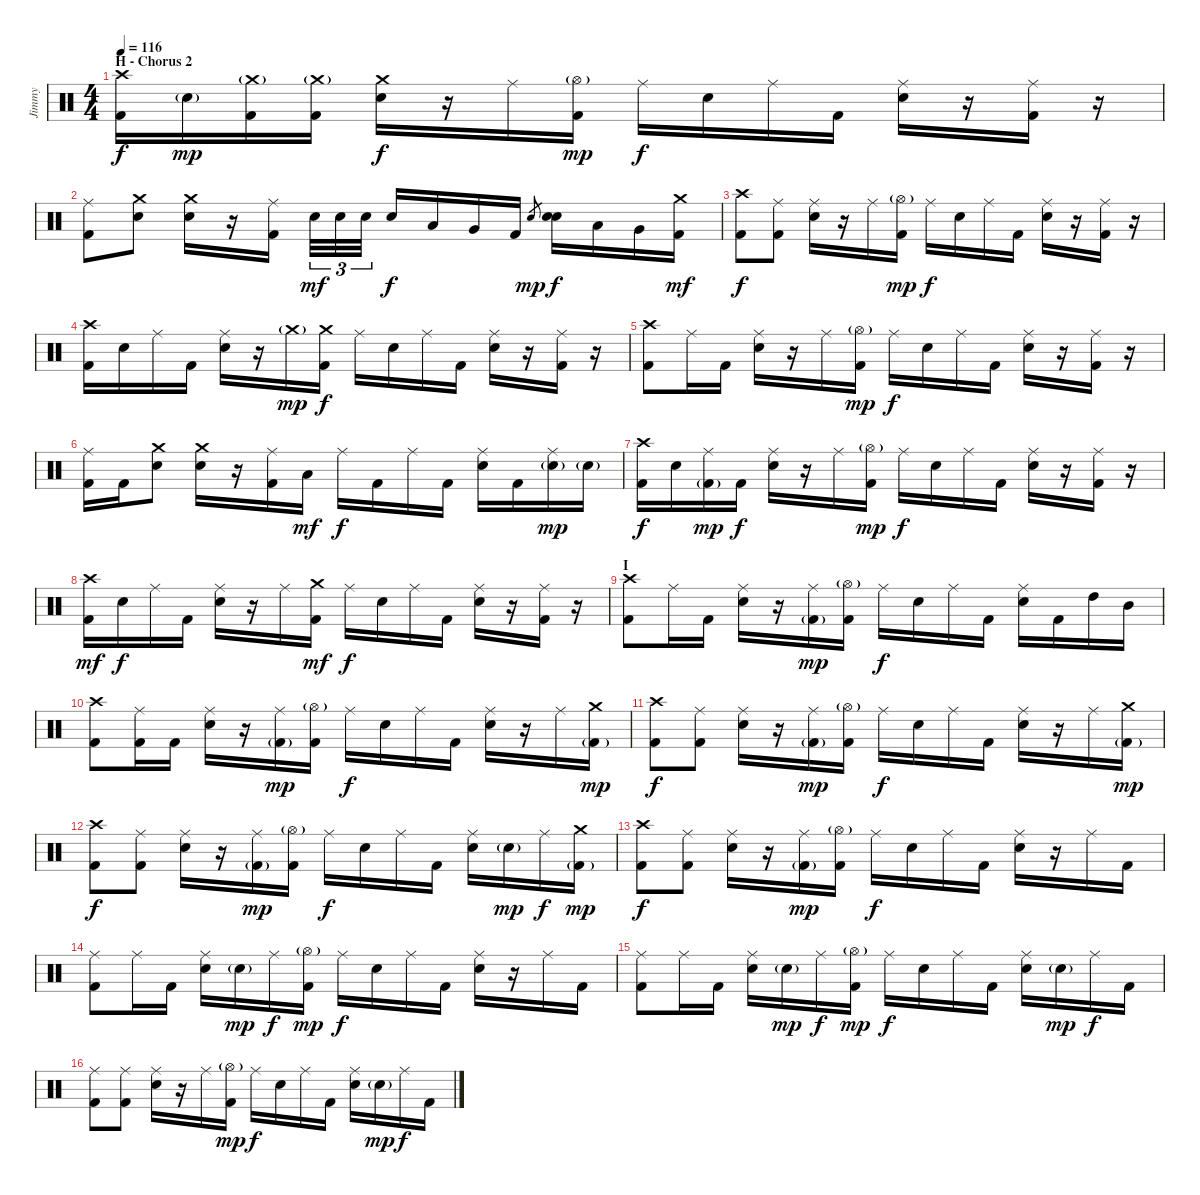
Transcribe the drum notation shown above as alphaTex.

\track ("Jimmy" "Jimmy") {instrument percussion}
\staff {score}
\articulation defaults
\ts (4 4)
\section ("" "H - Chorus 2")
\tempo 116
\clef neutral
\ks c
("Crash high (hit)" "Kick (hit) 2").16{dy f} "Electric Snare (hit)"{g}.16{dy mp} ("Crash medium (hit)"{g} "Kick (hit) 2").16 ("Crash medium (hit)"{g} "Kick (hit) 2").16 ("Crash medium (hit)" "Electric Snare (hit)").16{dy f} r.16 "Ride (middle)".16 ("Hi-Hat (open)"{g} "Kick (hit) 2").16{dy mp} "Ride (middle)".16{dy f} "Electric Snare (hit)".16 "Ride (middle)".16 "Kick (hit) 2".16 ("Ride (middle)" "Electric Snare (hit)").16 r.16 ("Ride (middle)" "Kick (hit) 2").16 r.16 |
("Ride (middle)" "Kick (hit) 2").8 ("Crash medium (hit)" "Electric Snare (hit)").8 ("Crash medium (hit)" "Electric Snare (hit)").16 r.16 ("Ride (middle)" "Kick (hit) 2").16 "Electric Snare (hit)".32{tu (3 2) dy mf} "Electric Snare (hit)".32{tu (3 2)} "Electric Snare (hit)".32{tu (3 2)} "Electric Snare (hit)".16{dy f} "Low Tom (hit)".16 "Very Low Tom (hit)".16 "Kick (hit) 2".16 "Electric Snare (hit)".8{gr dy mp} ("Electric Snare (hit)" "Electric Snare (hit)").16{dy f} "Low Tom (hit)".16 "Very Low Tom (hit)".16 ("Crash medium (hit)" "Kick (hit) 2").16{dy mf} |
("Crash high (hit)" "Kick (hit) 2").8{dy f} ("Ride (middle)" "Kick (hit) 2").8 ("Ride (middle)" "Electric Snare (hit)").16 r.16 "Ride (middle)".16 ("Hi-Hat (open)"{g} "Kick (hit) 2").16{dy mp} "Ride (middle)".16{dy f} "Electric Snare (hit)".16 "Ride (middle)".16 "Kick (hit) 2".16 ("Ride (middle)" "Electric Snare (hit)").16 r.16 ("Ride (middle)" "Kick (hit) 2").16 r.16 |
("Crash high (hit)" "Kick (hit) 2").16 "Electric Snare (hit)".16 "Ride (middle)".16 "Kick (hit) 2".16 ("Ride (middle)" "Electric Snare (hit)").16 r.16 "Crash medium (hit)"{g}.16{dy mp} ("Crash medium (hit)" "Kick (hit) 2").16{dy f} "Ride (middle)".16 "Electric Snare (hit)".16 "Ride (middle)".16 "Kick (hit) 2".16 ("Ride (middle)" "Electric Snare (hit)").16 r.16 ("Ride (middle)" "Kick (hit) 2").16 r.16 |
("Crash high (hit)" "Kick (hit) 2").8 "Ride (middle)".16 "Kick (hit) 2".16 ("Ride (middle)" "Electric Snare (hit)").16 r.16 "Ride (middle)".16 ("Hi-Hat (open)"{g} "Kick (hit) 2").16{dy mp} "Ride (middle)".16{dy f} "Electric Snare (hit)".16 "Ride (middle)".16 "Kick (hit) 2".16 ("Ride (middle)" "Electric Snare (hit)").16 r.16 ("Ride (middle)" "Kick (hit) 2").16 r.16 |
("Ride (middle)" "Kick (hit) 2").16 "Kick (hit) 2".16 ("Crash medium (hit)" "Electric Snare (hit)").8 ("Crash medium (hit)" "Electric Snare (hit)").16 r.16 ("Ride (middle)" "Kick (hit) 2").16 "Low Tom (hit)".16{dy mf} "Ride (middle)".16{dy f} "Kick (hit) 2".16 "Ride (middle)".16 "Kick (hit) 2".16 ("Ride (middle)" "Electric Snare (hit)").16 "Kick (hit) 2".16 ("Ride (middle)" "Electric Snare (hit)"{g}).16{dy mp} "Electric Snare (hit)"{g}.16 |
("Crash high (hit)" "Kick (hit) 2").16{dy f} "Electric Snare (hit)".16 ("Ride (middle)" "Kick (hit) 2"{g}).16{dy mp} "Kick (hit) 2".16{dy f} ("Ride (middle)" "Electric Snare (hit)").16 r.16 "Ride (middle)".16 ("Hi-Hat (open)"{g} "Kick (hit) 2").16{dy mp} "Ride (middle)".16{dy f} "Electric Snare (hit)".16 "Ride (middle)".16 "Kick (hit) 2".16 ("Ride (middle)" "Electric Snare (hit)").16 r.16 ("Ride (middle)" "Kick (hit) 2").16 r.16 |
("Crash high (hit)" "Kick (hit) 2").16{dy mf} "Electric Snare (hit)".16{dy f} "Ride (middle)".16 "Kick (hit) 2".16 ("Ride (middle)" "Electric Snare (hit)").16 r.16 "Ride (middle)".16 ("Crash medium (hit)" "Kick (hit) 2").16{dy mf} "Ride (middle)".16{dy f} "Electric Snare (hit)".16 "Ride (middle)".16 "Kick (hit) 2".16 ("Ride (middle)" "Electric Snare (hit)").16 r.16 ("Ride (middle)" "Kick (hit) 2").16 r.16 |
\section ("" "I")
("Crash high (hit)" "Kick (hit) 2").8 "Ride (middle)".16 "Kick (hit) 2".16 ("Ride (middle)" "Electric Snare (hit)").16 r.16 ("Ride (middle)" "Kick (hit) 2"{g}).16{dy mp} ("Hi-Hat (open)"{g} "Kick (hit) 2").16 "Ride (middle)".16{dy f} "Electric Snare (hit)".16 "Ride (middle)".16 "Kick (hit) 2".16 ("Ride (middle)" "Electric Snare (hit)").16 "Kick (hit) 2".16 "High Tom (hit)".16 "Mid Tom (hit)".16 |
("Crash high (hit)" "Kick (hit) 2").8 ("Ride (middle)" "Kick (hit) 2").16 "Kick (hit) 2".16 ("Ride (middle)" "Electric Snare (hit)").16 r.16 ("Ride (middle)" "Kick (hit) 2"{g}).16{dy mp} ("Hi-Hat (open)"{g} "Kick (hit) 2").16 "Ride (middle)".16{dy f} "Electric Snare (hit)".16 "Ride (middle)".16 "Kick (hit) 2".16 ("Ride (middle)" "Electric Snare (hit)").16 r.16 "Ride (middle)".16 ("Crash medium (hit)" "Kick (hit) 2"{g}).16{dy mp} |
("Crash high (hit)" "Kick (hit) 2").8{dy f} ("Ride (middle)" "Kick (hit) 2").8 ("Ride (middle)" "Electric Snare (hit)").16 r.16 ("Ride (middle)" "Kick (hit) 2"{g}).16{dy mp} ("Hi-Hat (open)"{g} "Kick (hit) 2").16 "Ride (middle)".16{dy f} "Electric Snare (hit)".16 "Ride (middle)".16 "Kick (hit) 2".16 ("Ride (middle)" "Electric Snare (hit)").16 r.16 "Ride (middle)".16 ("Crash medium (hit)" "Kick (hit) 2"{g}).16{dy mp} |
("Crash high (hit)" "Kick (hit) 2").8{dy f} ("Ride (middle)" "Kick (hit) 2").8 ("Ride (middle)" "Electric Snare (hit)").16 r.16 ("Ride (middle)" "Kick (hit) 2"{g}).16{dy mp} ("Hi-Hat (open)"{g} "Kick (hit) 2").16 "Ride (middle)".16{dy f} "Electric Snare (hit)".16 "Ride (middle)".16 "Kick (hit) 2".16 ("Ride (middle)" "Electric Snare (hit)").16 "Electric Snare (hit)"{g}.16{dy mp} "Ride (middle)".16{dy f} ("Crash medium (hit)" "Kick (hit) 2"{g}).16{dy mp} |
("Crash high (hit)" "Kick (hit) 2").8{dy f} ("Ride (middle)" "Kick (hit) 2").8 ("Ride (middle)" "Electric Snare (hit)").16 r.16 ("Ride (middle)" "Kick (hit) 2"{g}).16{dy mp} ("Hi-Hat (open)"{g} "Kick (hit) 2").16 "Ride (middle)".16{dy f} "Electric Snare (hit)".16 "Ride (middle)".16 "Kick (hit) 2".16 ("Ride (middle)" "Electric Snare (hit)").16 r.16 "Ride (middle)".16 "Kick (hit) 2".16 |
("Ride (middle)" "Kick (hit) 2").8 "Ride (middle)".16 "Kick (hit) 2".16 ("Ride (middle)" "Electric Snare (hit)").16 "Electric Snare (hit)"{g}.16{dy mp} "Ride (middle)".16{dy f} ("Hi-Hat (open)"{g} "Kick (hit) 2").16{dy mp} "Ride (middle)".16{dy f} "Electric Snare (hit)".16 "Ride (middle)".16 "Kick (hit) 2".16 ("Ride (middle)" "Electric Snare (hit)").16 r.16 "Ride (middle)".16 "Kick (hit) 2".16 |
("Ride (middle)" "Kick (hit) 2").8 "Ride (middle)".16 "Kick (hit) 2".16 ("Ride (middle)" "Electric Snare (hit)").16 "Electric Snare (hit)"{g}.16{dy mp} "Ride (middle)".16{dy f} ("Hi-Hat (open)"{g} "Kick (hit) 2").16{dy mp} "Ride (middle)".16{dy f} "Electric Snare (hit)".16 "Ride (middle)".16 "Kick (hit) 2".16 ("Ride (middle)" "Electric Snare (hit)").16 "Electric Snare (hit)"{g}.16{dy mp} "Ride (middle)".16{dy f} "Kick (hit) 2".16 |
("Ride (middle)" "Kick (hit) 2").8 ("Ride (middle)" "Kick (hit) 2").8 ("Ride (middle)" "Electric Snare (hit)").16 r.16 "Ride (middle)".16 ("Hi-Hat (open)"{g} "Kick (hit) 2").16{dy mp} "Ride (middle)".16{dy f} "Electric Snare (hit)".16 "Ride (middle)".16 "Kick (hit) 2".16 ("Ride (middle)" "Electric Snare (hit)").16 "Electric Snare (hit)"{g}.16{dy mp} "Ride (middle)".16{dy f} "Kick (hit) 2".16
